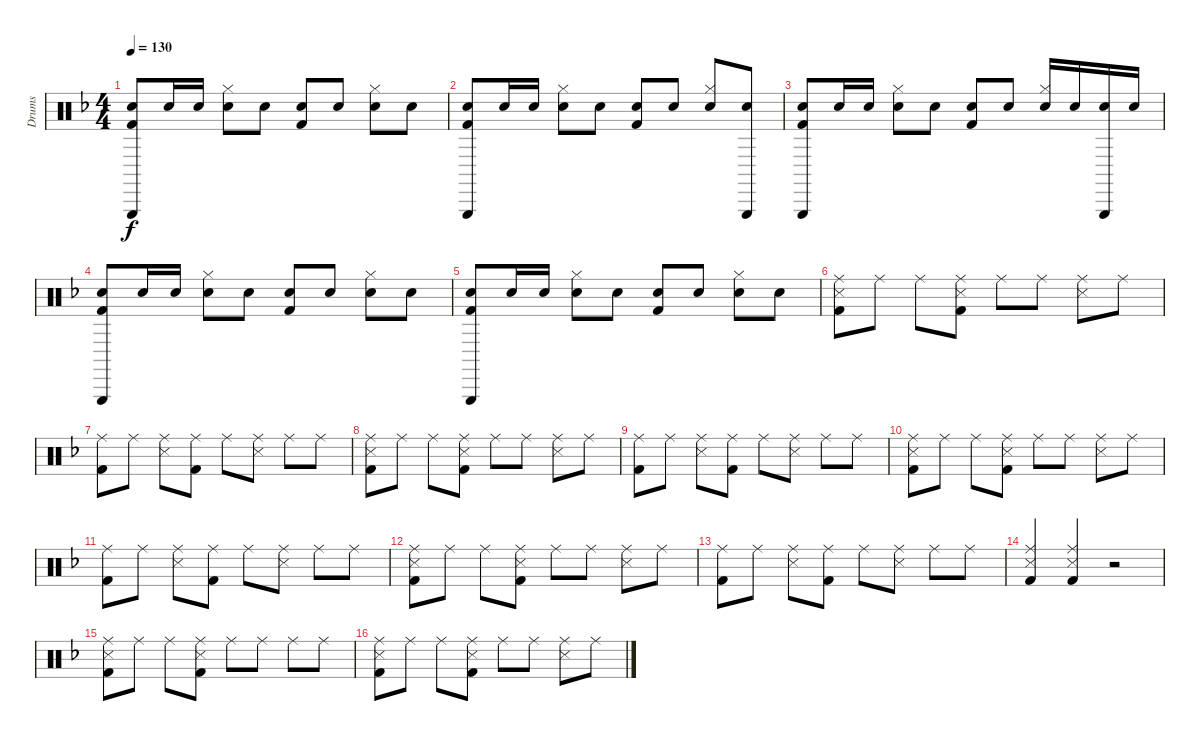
\track ("Drums" "Drums") {instrument percussion}
\staff {score}
\articulation defaults
\ts (4 4)
\tempo 130
\clef neutral
\ks f
("Triangle (hit)" "Snare (hit) 2" "Kick (hit) 2").8{dy f} "Snare (hit) 2".16 "Snare (hit) 2".16 ("Hi-Hat (closed)" "Snare (hit) 2").8 "Snare (hit) 2".8 ("Snare (hit) 2" "Kick (hit) 2").8 "Snare (hit) 2".8 ("Hi-Hat (closed)" "Snare (hit) 2").8 "Snare (hit) 2".8 |
("Triangle (hit)" "Snare (hit) 2" "Kick (hit) 2").8 "Snare (hit) 2".16 "Snare (hit) 2".16 ("Hi-Hat (closed)" "Snare (hit) 2").8 "Snare (hit) 2".8 ("Snare (hit) 2" "Kick (hit) 2").8 "Snare (hit) 2".8 ("Hi-Hat (closed)" "Snare (hit) 2").8 ("Triangle (hit)" "Snare (hit) 2").8 |
("Triangle (hit)" "Snare (hit) 2" "Kick (hit) 2").8 "Snare (hit) 2".16 "Snare (hit) 2".16 ("Hi-Hat (closed)" "Snare (hit) 2").8 "Snare (hit) 2".8 ("Snare (hit) 2" "Kick (hit) 2").8 "Snare (hit) 2".8 ("Hi-Hat (closed)" "Snare (hit) 2").16 "Snare (hit) 2".16 ("Triangle (hit)" "Snare (hit) 2").16 "Snare (hit) 2".16 |
("Triangle (hit)" "Snare (hit) 2" "Kick (hit) 2").8 "Snare (hit) 2".16 "Snare (hit) 2".16 ("Hi-Hat (closed)" "Snare (hit) 2").8 "Snare (hit) 2".8 ("Snare (hit) 2" "Kick (hit) 2").8 "Snare (hit) 2".8 ("Hi-Hat (closed)" "Snare (hit) 2").8 "Snare (hit) 2".8 |
("Triangle (hit)" "Snare (hit) 2" "Kick (hit) 2").8 "Snare (hit) 2".16 "Snare (hit) 2".16 ("Hi-Hat (closed)" "Snare (hit) 2").8 "Snare (hit) 2".8 ("Snare (hit) 2" "Kick (hit) 2").8 "Snare (hit) 2".8 ("Hi-Hat (closed)" "Snare (hit) 2").8 "Snare (hit) 2".8 |
("Ride (middle)" "Snare (side stick) 3" "Kick (hit) 2").8 "Ride (middle)".8 "Ride (middle)".8 ("Ride (middle)" "Snare (side stick) 3" "Kick (hit) 2").8 "Ride (middle)".8 "Ride (middle)".8 ("Ride (middle)" "Snare (side stick) 3").8 "Ride (middle)".8 |
("Ride (middle)" "Kick (hit) 2").8 "Ride (middle)".8 ("Ride (middle)" "Snare (side stick) 3").8 ("Ride (middle)" "Kick (hit) 2").8 "Ride (middle)".8 ("Ride (middle)" "Snare (side stick) 3").8 "Ride (middle)".8 "Ride (middle)".8 |
("Ride (middle)" "Snare (side stick) 3" "Kick (hit) 2").8 "Ride (middle)".8 "Ride (middle)".8 ("Ride (middle)" "Snare (side stick) 3" "Kick (hit) 2").8 "Ride (middle)".8 "Ride (middle)".8 ("Ride (middle)" "Snare (side stick) 3").8 "Ride (middle)".8 |
("Ride (middle)" "Kick (hit) 2").8 "Ride (middle)".8 ("Ride (middle)" "Snare (side stick) 3").8 ("Ride (middle)" "Kick (hit) 2").8 "Ride (middle)".8 ("Ride (middle)" "Snare (side stick) 3").8 "Ride (middle)".8 "Ride (middle)".8 |
("Ride (middle)" "Snare (side stick) 3" "Kick (hit) 2").8 "Ride (middle)".8 "Ride (middle)".8 ("Ride (middle)" "Snare (side stick) 3" "Kick (hit) 2").8 "Ride (middle)".8 "Ride (middle)".8 ("Ride (middle)" "Snare (side stick) 3").8 "Ride (middle)".8 |
("Ride (middle)" "Kick (hit) 2").8 "Ride (middle)".8 ("Ride (middle)" "Snare (side stick) 3").8 ("Ride (middle)" "Kick (hit) 2").8 "Ride (middle)".8 ("Ride (middle)" "Snare (side stick) 3").8 "Ride (middle)".8 "Ride (middle)".8 |
("Ride (middle)" "Snare (side stick) 3" "Kick (hit) 2").8 "Ride (middle)".8 "Ride (middle)".8 ("Ride (middle)" "Snare (side stick) 3" "Kick (hit) 2").8 "Ride (middle)".8 "Ride (middle)".8 ("Ride (middle)" "Snare (side stick) 3").8 "Ride (middle)".8 |
("Ride (middle)" "Kick (hit) 2").8 "Ride (middle)".8 ("Ride (middle)" "Snare (side stick) 3").8 ("Ride (middle)" "Kick (hit) 2").8 "Ride (middle)".8 ("Ride (middle)" "Snare (side stick) 3").8 "Ride (middle)".8 "Ride (middle)".8 |
("Ride (middle)" "Snare (side stick) 3" "Kick (hit) 2").4 ("Ride (middle)" "Snare (side stick) 3" "Kick (hit) 2").4 r.2 |
("Ride (middle)" "Snare (side stick) 3" "Kick (hit) 2").8 "Ride (middle)".8 "Ride (middle)".8 ("Ride (middle)" "Snare (side stick) 3" "Kick (hit) 2").8 "Ride (middle)".8 "Ride (middle)".8 "Ride (middle)".8 "Ride (middle)".8 |
("Ride (middle)" "Snare (side stick) 3" "Kick (hit) 2").8 "Ride (middle)".8 "Ride (middle)".8 ("Ride (middle)" "Snare (side stick) 3" "Kick (hit) 2").8 "Ride (middle)".8 "Ride (middle)".8 ("Ride (middle)" "Snare (side stick) 3").8 "Ride (middle)".8
